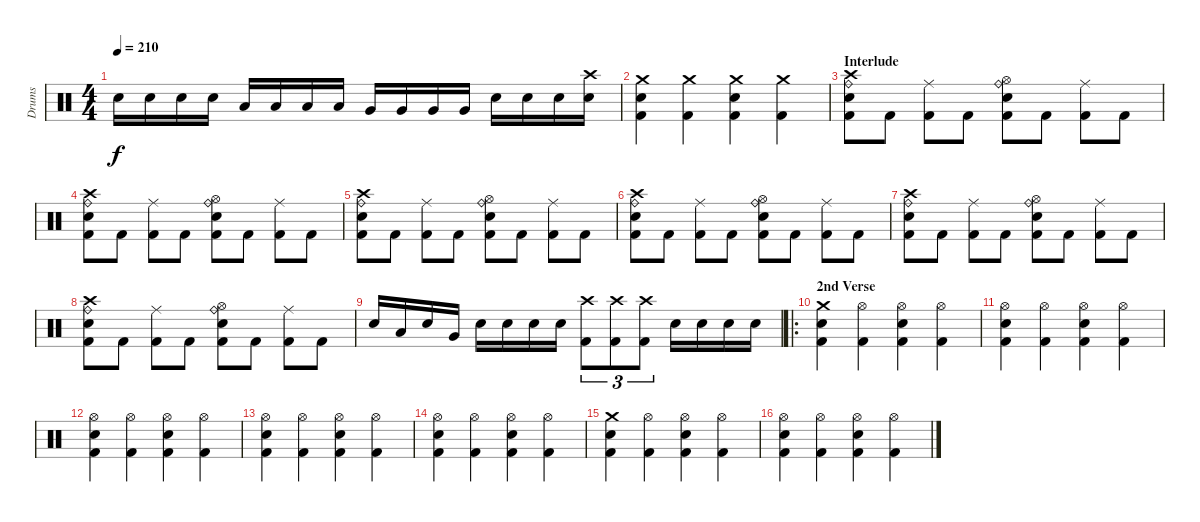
\track ("Drums" "Drums") {instrument percussion}
\staff {score}
\articulation defaults
\ts (4 4)
\tempo 210
\clef neutral
\ks c "Electric Snare (hit)".16{dy f} "Electric Snare (hit)".16 "Electric Snare (hit)".16 "Electric Snare (hit)".16 "Low Tom (hit)".16 "Low Tom (hit)".16 "Low Tom (hit)".16 "Low Tom (hit)".16 "Very Low Tom (hit)".16 "Very Low Tom (hit)".16 "Very Low Tom (hit)".16 "Very Low Tom (hit)".16 "Electric Snare (hit)".16 "Electric Snare (hit)".16 "Electric Snare (hit)".16
("Electric Snare (hit)" "Crash high (hit)").16 |
("Kick (hit) 2" "Crash medium (hit)" "Electric Snare (hit)").4 ("Kick (hit) 2" "Crash medium (hit)").4 ("Kick (hit) 2" "Crash medium (hit)" "Electric Snare (hit)").4 ("Kick (hit) 2" "Crash medium (hit)").4 |
\section ("" "Interlude")
("Kick (hit) 2" "Crash high (hit)" "Ride (bell)" "Electric Snare (hit)").8 "Kick (hit) 2".8 ("Kick (hit) 2" "Ride (middle)").8 "Kick (hit) 2".8 ("Kick (hit) 2" "Electric Snare (hit)" "Ride (bell)" "Hi-Hat (open)").8 "Kick (hit) 2".8 ("Kick (hit) 2" "Ride (middle)").8 "Kick (hit) 2".8 |
("Kick (hit) 2" "Crash high (hit)" "Ride (bell)" "Electric Snare (hit)").8 "Kick (hit) 2".8 ("Kick (hit) 2" "Ride (middle)").8 "Kick (hit) 2".8 ("Kick (hit) 2" "Electric Snare (hit)" "Ride (bell)" "Hi-Hat (open)").8 "Kick (hit) 2".8 ("Kick (hit) 2" "Ride (middle)").8 "Kick (hit) 2".8 |
("Kick (hit) 2" "Crash high (hit)" "Ride (bell)" "Electric Snare (hit)").8 "Kick (hit) 2".8 ("Kick (hit) 2" "Ride (middle)").8 "Kick (hit) 2".8 ("Kick (hit) 2" "Electric Snare (hit)" "Ride (bell)" "Hi-Hat (open)").8 "Kick (hit) 2".8 ("Kick (hit) 2" "Ride (middle)").8 "Kick (hit) 2".8 |
("Kick (hit) 2" "Crash high (hit)" "Ride (bell)" "Electric Snare (hit)").8 "Kick (hit) 2".8 ("Kick (hit) 2" "Ride (middle)").8 "Kick (hit) 2".8 ("Kick (hit) 2" "Electric Snare (hit)" "Ride (bell)" "Hi-Hat (open)").8 "Kick (hit) 2".8 ("Kick (hit) 2" "Ride (middle)").8 "Kick (hit) 2".8 |
("Kick (hit) 2" "Crash high (hit)" "Ride (bell)" "Electric Snare (hit)").8 "Kick (hit) 2".8 ("Kick (hit) 2" "Ride (middle)").8 "Kick (hit) 2".8 ("Kick (hit) 2" "Electric Snare (hit)" "Ride (bell)" "Hi-Hat (open)").8 "Kick (hit) 2".8 ("Kick (hit) 2" "Ride (middle)").8 "Kick (hit) 2".8 |
("Kick (hit) 2" "Crash high (hit)" "Ride (bell)" "Electric Snare (hit)").8 "Kick (hit) 2".8 ("Kick (hit) 2" "Ride (middle)").8 "Kick (hit) 2".8 ("Kick (hit) 2" "Electric Snare (hit)" "Ride (bell)" "Hi-Hat (open)").8 "Kick (hit) 2".8 ("Kick (hit) 2" "Ride (middle)").8 "Kick (hit) 2".8 |
"Electric Snare (hit)".16 "Low Tom (hit)".16 "Electric Snare (hit)".16 "Very Low Tom (hit)".16 "Electric Snare (hit)".16 "Electric Snare (hit)".16 "Electric Snare (hit)".16 "Electric Snare (hit)".16 ("Kick (hit) 2" "Crash high (hit)").8{tu (3 2)} ("Kick (hit) 2" "Crash high (hit)").8{tu (3 2)} ("Kick (hit) 2" "Crash high (hit)").8{tu (3 2)} "Electric Snare (hit)".16 "Electric Snare (hit)".16 "Electric Snare (hit)".16 "Electric Snare (hit)".16 |
\ro
\section ("" "2nd Verse")
("Crash medium (hit)" "Electric Snare (hit)" "Kick (hit) 2").4 ("Hi-Hat (open)" "Kick (hit) 2").4 ("Hi-Hat (open)" "Electric Snare (hit)" "Kick (hit) 2").4 ("Hi-Hat (open)" "Kick (hit) 2").4 |
("Hi-Hat (open)" "Electric Snare (hit)" "Kick (hit) 2").4 ("Hi-Hat (open)" "Kick (hit) 2").4 ("Hi-Hat (open)" "Electric Snare (hit)" "Kick (hit) 2").4 ("Hi-Hat (open)" "Kick (hit) 2").4 |
("Hi-Hat (open)" "Electric Snare (hit)" "Kick (hit) 2").4 ("Hi-Hat (open)" "Kick (hit) 2").4 ("Hi-Hat (open)" "Electric Snare (hit)" "Kick (hit) 2").4 ("Hi-Hat (open)" "Kick (hit) 2").4 |
("Hi-Hat (open)" "Electric Snare (hit)" "Kick (hit) 2").4 ("Hi-Hat (open)" "Kick (hit) 2").4 ("Hi-Hat (open)" "Electric Snare (hit)" "Kick (hit) 2").4 ("Hi-Hat (open)" "Kick (hit) 2").4 |
("Hi-Hat (open)" "Electric Snare (hit)" "Kick (hit) 2").4 ("Hi-Hat (open)" "Kick (hit) 2").4 ("Hi-Hat (open)" "Electric Snare (hit)" "Kick (hit) 2").4 ("Hi-Hat (open)" "Kick (hit) 2").4 |
("Crash medium (hit)" "Electric Snare (hit)" "Kick (hit) 2").4 ("Hi-Hat (open)" "Kick (hit) 2").4 ("Hi-Hat (open)" "Electric Snare (hit)" "Kick (hit) 2").4 ("Hi-Hat (open)" "Kick (hit) 2").4 |
("Hi-Hat (open)" "Electric Snare (hit)" "Kick (hit) 2").4 ("Hi-Hat (open)" "Kick (hit) 2").4 ("Hi-Hat (open)" "Electric Snare (hit)" "Kick (hit) 2").4 ("Hi-Hat (open)" "Kick (hit) 2").4
